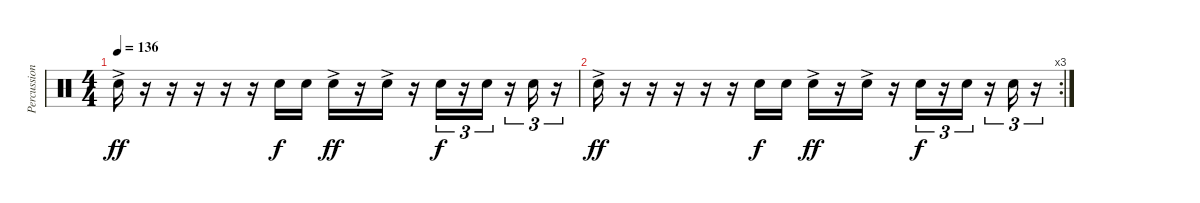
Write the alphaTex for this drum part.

\track ("Percussion" "Percussion") {instrument percussion bank 11}
\staff {score}
\articulation defaults
\ts (4 4)
\tempo 136
\clef neutral
\ks c "Snare (hit) 2"{ac}.16{dy ff}
r.16 r.16 r.16 r.16 r.16 "Snare (hit) 2".16{dy f} "Snare (hit) 2".16 "Snare (hit) 2"{ac}.16{dy ff} r.16 "Snare (hit) 2"{ac}.16 r.16 "Snare (hit) 2".16{tu (3 2) dy f} r.16{tu (3 2)} "Snare (hit) 2".16{tu (3 2)} r.16{tu (3 2)} "Snare (hit) 2".16{tu (3 2)} r.16{tu (3 2)} |
\rc 3 "Snare (hit) 2"{ac}.16{dy ff}
r.16 r.16 r.16 r.16 r.16 "Snare (hit) 2".16{dy f} "Snare (hit) 2".16 "Snare (hit) 2"{ac}.16{dy ff} r.16 "Snare (hit) 2"{ac}.16 r.16 "Snare (hit) 2".16{tu (3 2) dy f} r.16{tu (3 2)} "Snare (hit) 2".16{tu (3 2)} r.16{tu (3 2)} "Snare (hit) 2".16{tu (3 2)} r.16{tu (3 2)}
